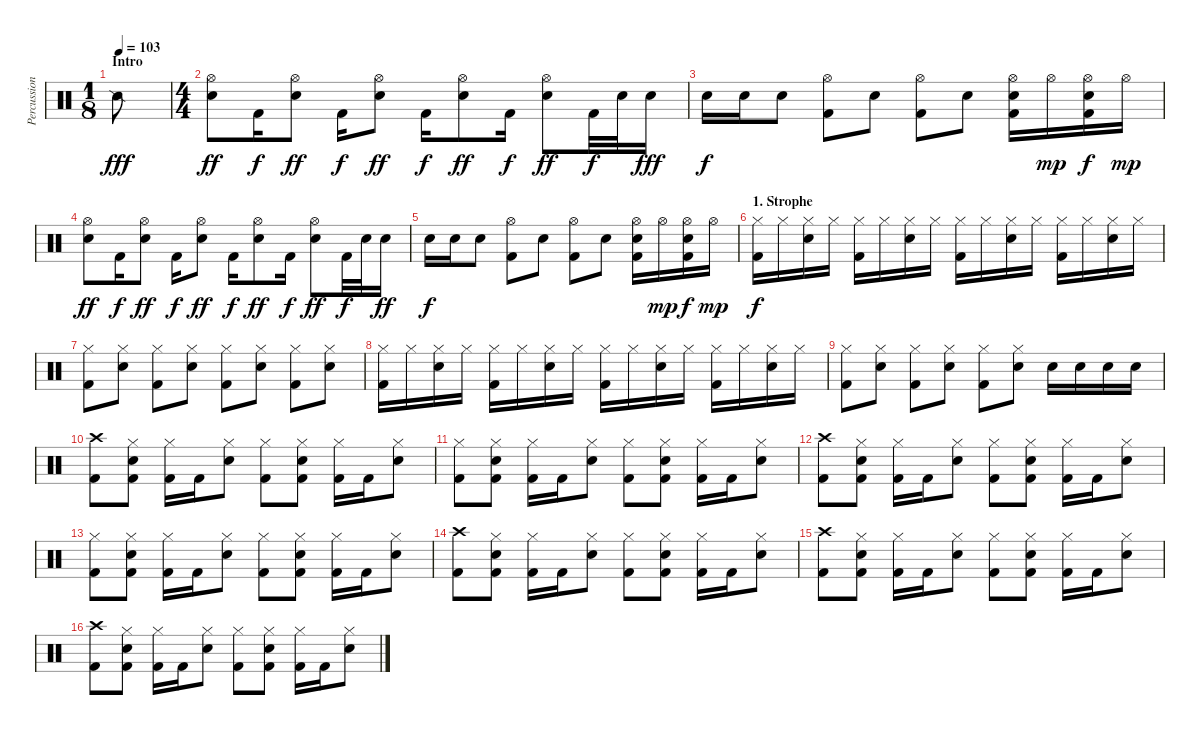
\track ("Percussion" "Percussion") {instrument percussion}
\staff {score}
\articulation defaults
\ts (1 8)
\section ("" "Intro")
\tempo 103
\clef neutral
\ks c "Snare (side stick) 2".8{dy fff}
|
\ts (4 4)
("Hi-Hat (open)" "Electric Snare (hit)").8{dy ff volume 16} "Kick (hit) 2".16{dy f} ("Hi-Hat (open)" "Electric Snare (hit)").8{dy ff} "Kick (hit) 2".16{dy f} ("Hi-Hat (open)" "Electric Snare (hit)").8{dy ff} "Kick (hit) 2".16{dy f} ("Hi-Hat (open)" "Electric Snare (hit)").8{dy ff} "Kick (hit) 2".16{dy f} ("Hi-Hat (open)" "Electric Snare (hit)").8{dy ff} "Kick (hit) 2".32{dy f} "Electric Snare (hit)".32 "Electric Snare (hit)".16{dy fff} |
"Snare (hit) 2".16{dy f} "Snare (hit) 2".16 "Snare (hit) 2".8 ("Hi-Hat (open)" "Kick (hit) 2").8 "Electric Snare (hit)".8 ("Hi-Hat (open)" "Kick (hit) 2").8 "Electric Snare (hit)".8 ("Hi-Hat (open)" "Electric Snare (hit)" "Kick (hit) 2").16 "Hi-Hat (open)".16{dy mp} ("Hi-Hat (open)" "Electric Snare (hit)" "Kick (hit) 2").16{dy f} "Hi-Hat (open)".16{dy mp} |
("Hi-Hat (open)" "Electric Snare (hit)").8{dy ff} "Kick (hit) 2".16{dy f} ("Hi-Hat (open)" "Electric Snare (hit)").8{dy ff} "Kick (hit) 2".16{dy f} ("Hi-Hat (open)" "Electric Snare (hit)").8{dy ff} "Kick (hit) 2".16{dy f} ("Hi-Hat (open)" "Electric Snare (hit)").8{dy ff} "Kick (hit) 2".16{dy f} ("Hi-Hat (open)" "Electric Snare (hit)").8{dy ff} "Kick (hit) 2".32{dy f} "Electric Snare (hit)".32 "Electric Snare (hit)".16{dy ff} |
"Snare (hit) 2".16{dy f} "Snare (hit) 2".16 "Snare (hit) 2".8 ("Hi-Hat (open)" "Kick (hit) 2").8 "Electric Snare (hit)".8 ("Hi-Hat (open)" "Kick (hit) 2").8 "Electric Snare (hit)".8 ("Hi-Hat (open)" "Electric Snare (hit)" "Kick (hit) 2").16 "Hi-Hat (open)".16{dy mp} ("Hi-Hat (open)" "Electric Snare (hit)" "Kick (hit) 2").16{dy f} "Hi-Hat (open)".16{dy mp} |
\section ("" "1. Strophe")
("Hi-Hat (closed)" "Kick (hit) 2").16{dy f volume 13} "Hi-Hat (closed)".16 ("Hi-Hat (closed)" "Electric Snare (hit)").16 "Hi-Hat (closed)".16 ("Hi-Hat (closed)" "Kick (hit) 2").16 "Hi-Hat (closed)".16 ("Hi-Hat (closed)" "Electric Snare (hit)").16 "Hi-Hat (closed)".16 ("Hi-Hat (closed)" "Kick (hit) 2").16 "Hi-Hat (closed)".16 ("Hi-Hat (closed)" "Electric Snare (hit)").16 "Hi-Hat (closed)".16 ("Hi-Hat (closed)" "Kick (hit) 2").16 "Hi-Hat (closed)".16 ("Hi-Hat (closed)" "Electric Snare (hit)").16 "Hi-Hat (closed)".16 |
("Hi-Hat (closed)" "Kick (hit) 2").8 ("Hi-Hat (closed)" "Electric Snare (hit)").8 ("Hi-Hat (closed)" "Kick (hit) 2").8 ("Hi-Hat (closed)" "Electric Snare (hit)").8 ("Hi-Hat (closed)" "Kick (hit) 2").8 ("Hi-Hat (closed)" "Electric Snare (hit)").8 ("Hi-Hat (closed)" "Kick (hit) 2").8 ("Hi-Hat (closed)" "Electric Snare (hit)").8 |
("Hi-Hat (closed)" "Kick (hit) 2").16 "Hi-Hat (closed)".16 ("Hi-Hat (closed)" "Electric Snare (hit)").16 "Hi-Hat (closed)".16 ("Hi-Hat (closed)" "Kick (hit) 2").16 "Hi-Hat (closed)".16 ("Hi-Hat (closed)" "Electric Snare (hit)").16 "Hi-Hat (closed)".16 ("Hi-Hat (closed)" "Kick (hit) 2").16 "Hi-Hat (closed)".16 ("Hi-Hat (closed)" "Electric Snare (hit)").16 "Hi-Hat (closed)".16 ("Hi-Hat (closed)" "Kick (hit) 2").16 "Hi-Hat (closed)".16 ("Hi-Hat (closed)" "Electric Snare (hit)").16 "Hi-Hat (closed)".16 |
("Hi-Hat (closed)" "Kick (hit) 2").8 ("Hi-Hat (closed)" "Electric Snare (hit)").8 ("Hi-Hat (closed)" "Kick (hit) 2").8 ("Hi-Hat (closed)" "Electric Snare (hit)").8 ("Hi-Hat (closed)" "Kick (hit) 2").8 ("Hi-Hat (closed)" "Electric Snare (hit)").8 "Electric Snare (hit)".16 "Electric Snare (hit)".16 "Snare (hit) 2".16 "Snare (hit) 2".16 |
("Crash high (hit)" "Kick (hit) 2").8 ("Hi-Hat (closed)" "Electric Snare (hit)" "Kick (hit) 2").8 ("Hi-Hat (closed)" "Kick (hit) 2").16 "Kick (hit) 2".16 ("Hi-Hat (closed)" "Electric Snare (hit)").8 ("Hi-Hat (closed)" "Kick (hit) 2").8 ("Hi-Hat (closed)" "Electric Snare (hit)" "Kick (hit) 2").8 ("Hi-Hat (closed)" "Kick (hit) 2").16 "Kick (hit) 2".16 ("Hi-Hat (closed)" "Electric Snare (hit)").8 |
("Hi-Hat (closed)" "Kick (hit) 2").8 ("Hi-Hat (closed)" "Electric Snare (hit)" "Kick (hit) 2").8 ("Hi-Hat (closed)" "Kick (hit) 2").16 "Kick (hit) 2".16 ("Hi-Hat (closed)" "Electric Snare (hit)").8 ("Hi-Hat (closed)" "Kick (hit) 2").8 ("Hi-Hat (closed)" "Electric Snare (hit)" "Kick (hit) 2").8 ("Hi-Hat (closed)" "Kick (hit) 2").16 "Kick (hit) 2".16 ("Hi-Hat (closed)" "Electric Snare (hit)").8 |
("Crash high (hit)" "Kick (hit) 2").8 ("Hi-Hat (closed)" "Electric Snare (hit)" "Kick (hit) 2").8 ("Hi-Hat (closed)" "Kick (hit) 2").16 "Kick (hit) 2".16 ("Hi-Hat (closed)" "Electric Snare (hit)").8 ("Hi-Hat (closed)" "Kick (hit) 2").8 ("Hi-Hat (closed)" "Electric Snare (hit)" "Kick (hit) 2").8 ("Hi-Hat (closed)" "Kick (hit) 2").16 "Kick (hit) 2".16 ("Hi-Hat (closed)" "Electric Snare (hit)").8 |
("Hi-Hat (closed)" "Kick (hit) 2").8 ("Hi-Hat (closed)" "Electric Snare (hit)" "Kick (hit) 2").8 ("Hi-Hat (closed)" "Kick (hit) 2").16 "Kick (hit) 2".16 ("Hi-Hat (closed)" "Electric Snare (hit)").8 ("Hi-Hat (closed)" "Kick (hit) 2").8 ("Hi-Hat (closed)" "Electric Snare (hit)" "Kick (hit) 2").8 ("Hi-Hat (closed)" "Kick (hit) 2").16 "Kick (hit) 2".16 ("Hi-Hat (closed)" "Electric Snare (hit)").8 |
("Crash high (hit)" "Kick (hit) 2").8 ("Hi-Hat (closed)" "Electric Snare (hit)" "Kick (hit) 2").8 ("Hi-Hat (closed)" "Kick (hit) 2").16 "Kick (hit) 2".16 ("Hi-Hat (closed)" "Electric Snare (hit)").8 ("Hi-Hat (closed)" "Kick (hit) 2").8 ("Hi-Hat (closed)" "Electric Snare (hit)" "Kick (hit) 2").8 ("Hi-Hat (closed)" "Kick (hit) 2").16 "Kick (hit) 2".16 ("Hi-Hat (closed)" "Electric Snare (hit)").8 |
("Crash high (hit)" "Kick (hit) 2").8 ("Hi-Hat (closed)" "Electric Snare (hit)" "Kick (hit) 2").8 ("Hi-Hat (closed)" "Kick (hit) 2").16 "Kick (hit) 2".16 ("Hi-Hat (closed)" "Electric Snare (hit)").8 ("Hi-Hat (closed)" "Kick (hit) 2").8 ("Hi-Hat (closed)" "Electric Snare (hit)" "Kick (hit) 2").8 ("Hi-Hat (closed)" "Kick (hit) 2").16 "Kick (hit) 2".16 ("Hi-Hat (closed)" "Electric Snare (hit)").8 |
("Crash high (hit)" "Kick (hit) 2").8 ("Hi-Hat (closed)" "Electric Snare (hit)" "Kick (hit) 2").8 ("Hi-Hat (closed)" "Kick (hit) 2").16 "Kick (hit) 2".16 ("Hi-Hat (closed)" "Electric Snare (hit)").8 ("Hi-Hat (closed)" "Kick (hit) 2").8 ("Hi-Hat (closed)" "Electric Snare (hit)" "Kick (hit) 2").8 ("Hi-Hat (closed)" "Kick (hit) 2").16 "Kick (hit) 2".16 ("Hi-Hat (closed)" "Electric Snare (hit)").8
